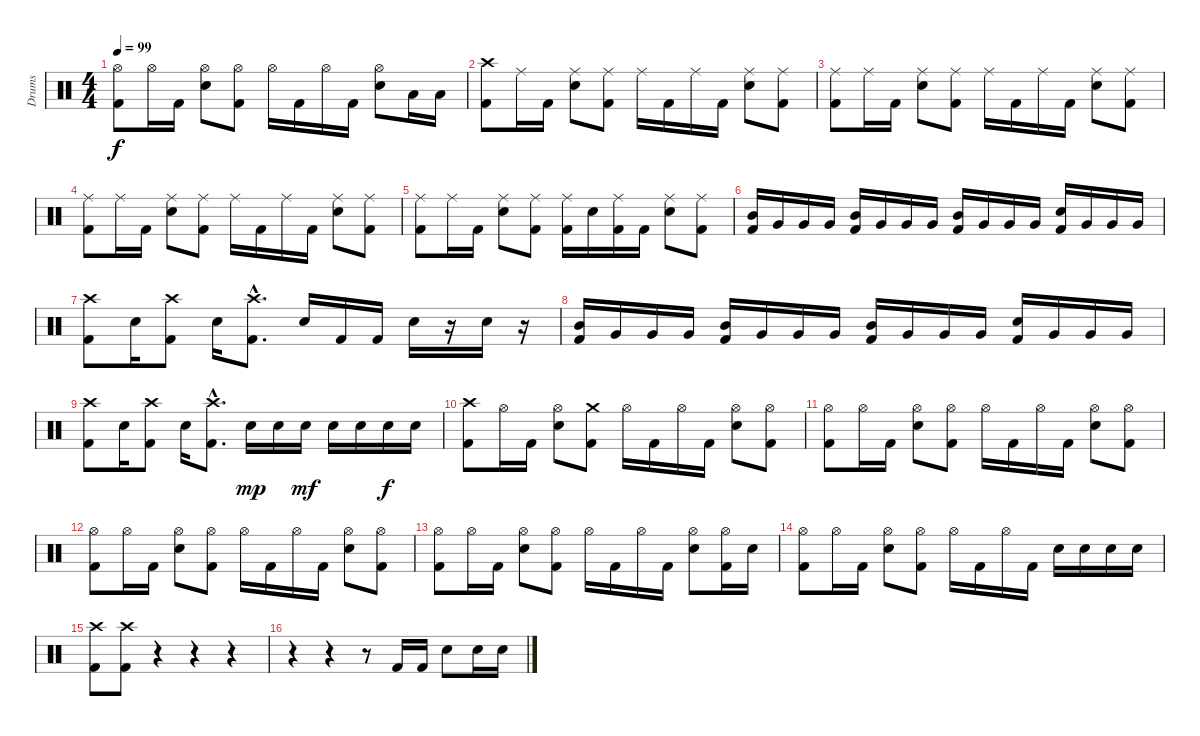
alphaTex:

\track ("Drums" "Drums") {instrument percussion}
\staff {score}
\articulation defaults
\ts (4 4)
\tempo 99
\clef neutral
\ks c
("Hi-Hat (open)" "Kick (hit) 2").8{dy f} "Hi-Hat (open)".16 "Kick (hit) 2".16 ("Hi-Hat (open)" "Snare (hit) 2").8 ("Hi-Hat (open)" "Kick (hit) 2").8 "Hi-Hat (open)".16 "Kick (hit) 2".16 "Hi-Hat (open)".16 "Kick (hit) 2".16 ("Hi-Hat (open)" "Snare (hit) 2").8 "Low Tom (hit)".16 "Low Tom (hit)".16 |
("Crash high (hit)" "Kick (hit) 2").8 "Ride (middle)".16 "Kick (hit) 2".16 ("Ride (middle)" "Snare (hit) 2").8 ("Ride (middle)" "Kick (hit) 2").8 "Ride (middle)".16 "Kick (hit) 2".16 "Ride (middle)".16 "Kick (hit) 2".16 ("Ride (middle)" "Snare (hit) 2").8 ("Ride (middle)" "Kick (hit) 2").8 |
("Ride (middle)" "Kick (hit) 2").8 "Ride (middle)".16 "Kick (hit) 2".16 ("Ride (middle)" "Snare (hit) 2").8 ("Ride (middle)" "Kick (hit) 2").8 "Ride (middle)".16 "Kick (hit) 2".16 "Ride (middle)".16 "Kick (hit) 2".16 ("Ride (middle)" "Snare (hit) 2").8 ("Ride (middle)" "Kick (hit) 2").8 |
("Ride (middle)" "Kick (hit) 2").8 "Ride (middle)".16 "Kick (hit) 2".16 ("Ride (middle)" "Snare (hit) 2").8 ("Ride (middle)" "Kick (hit) 2").8 "Ride (middle)".16 "Kick (hit) 2".16 "Ride (middle)".16 "Kick (hit) 2".16 ("Ride (middle)" "Snare (hit) 2").8 ("Ride (middle)" "Kick (hit) 2").8 |
("Ride (middle)" "Kick (hit) 2").8 "Ride (middle)".16 "Kick (hit) 2".16 ("Ride (middle)" "Snare (hit) 2").8 ("Ride (middle)" "Kick (hit) 2").8 ("Ride (middle)" "Kick (hit) 2").16 "Snare (hit) 2".16 ("Ride (middle)" "Kick (hit) 2").16 "Kick (hit) 2".16 ("Ride (middle)" "Snare (hit) 2").8 ("Ride (middle)" "Kick (hit) 2").8 |
("Mid Tom (hit)" "Kick (hit) 2").16 "Very Low Tom (hit)".16 "Very Low Tom (hit)".16 "Very Low Tom (hit)".16 ("Mid Tom (hit)" "Kick (hit) 2").16 "Very Low Tom (hit)".16 "Very Low Tom (hit)".16 "Very Low Tom (hit)".16 ("Mid Tom (hit)" "Kick (hit) 2").16 "Very Low Tom (hit)".16 "Very Low Tom (hit)".16 "Very Low Tom (hit)".16 ("Snare (hit) 2" "Kick (hit) 2").16 "Very Low Tom (hit)".16 "Very Low Tom (hit)".16 "Very Low Tom (hit)".16 |
("Crash high (hit)" "Kick (hit) 2").8 "Snare (hit) 2".16 ("Crash high (hit)" "Kick (hit) 2").8 "Snare (hit) 2".16 ("Crash high (hit)"{hac} "Kick (hit) 2"{hac}).8{d} "Snare (hit) 2".16 "Kick (hit) 2".16 "Kick (hit) 2".16 "Snare (hit) 2".16 r.16 "Snare (hit) 2".16 r.16 |
("Mid Tom (hit)" "Kick (hit) 2").16 "Very Low Tom (hit)".16 "Very Low Tom (hit)".16 "Very Low Tom (hit)".16 ("Mid Tom (hit)" "Kick (hit) 2").16 "Very Low Tom (hit)".16 "Very Low Tom (hit)".16 "Very Low Tom (hit)".16 ("Mid Tom (hit)" "Kick (hit) 2").16 "Very Low Tom (hit)".16 "Very Low Tom (hit)".16 "Very Low Tom (hit)".16 ("Snare (hit) 2" "Kick (hit) 2").16 "Very Low Tom (hit)".16 "Very Low Tom (hit)".16 "Very Low Tom (hit)".16 |
("Crash high (hit)" "Kick (hit) 2").8 "Snare (hit) 2".16 ("Crash high (hit)" "Kick (hit) 2").8 "Snare (hit) 2".16 ("Crash high (hit)"{hac} "Kick (hit) 2"{hac}).8{d} "Snare (hit) 2".16{dy mp} "Snare (hit) 2".16 "Snare (hit) 2".16{dy mf} "Snare (hit) 2".16 "Snare (hit) 2".16 "Snare (hit) 2".16{dy f} "Snare (hit) 2".16 |
("Crash high (hit)" "Kick (hit) 2").8 "Hi-Hat (open)".16 "Kick (hit) 2".16 ("Hi-Hat (open)" "Snare (hit) 2").8 ("Crash medium (hit)" "Kick (hit) 2").8 "Hi-Hat (open)".16 "Kick (hit) 2".16 "Hi-Hat (open)".16 "Kick (hit) 2".16 ("Hi-Hat (open)" "Snare (hit) 2").8 ("Hi-Hat (open)" "Kick (hit) 2").8 |
("Hi-Hat (open)" "Kick (hit) 2").8 "Hi-Hat (open)".16 "Kick (hit) 2".16 ("Hi-Hat (open)" "Snare (hit) 2").8 ("Hi-Hat (open)" "Kick (hit) 2").8 "Hi-Hat (open)".16 "Kick (hit) 2".16 "Hi-Hat (open)".16 "Kick (hit) 2".16 ("Hi-Hat (open)" "Snare (hit) 2").8 ("Hi-Hat (open)" "Kick (hit) 2").8 |
("Hi-Hat (open)" "Kick (hit) 2").8 "Hi-Hat (open)".16 "Kick (hit) 2".16 ("Hi-Hat (open)" "Snare (hit) 2").8 ("Hi-Hat (open)" "Kick (hit) 2").8 "Hi-Hat (open)".16 "Kick (hit) 2".16 "Hi-Hat (open)".16 "Kick (hit) 2".16 ("Hi-Hat (open)" "Snare (hit) 2").8 ("Hi-Hat (open)" "Kick (hit) 2").8 |
("Hi-Hat (open)" "Kick (hit) 2").8 "Hi-Hat (open)".16 "Kick (hit) 2".16 ("Hi-Hat (open)" "Snare (hit) 2").8 ("Hi-Hat (open)" "Kick (hit) 2").8 "Hi-Hat (open)".16 "Kick (hit) 2".16 "Hi-Hat (open)".16 "Kick (hit) 2".16 ("Hi-Hat (open)" "Snare (hit) 2").8 ("Hi-Hat (open)" "Kick (hit) 2").16 "Snare (hit) 2".16 |
("Hi-Hat (open)" "Kick (hit) 2").8 "Hi-Hat (open)".16 "Kick (hit) 2".16 ("Hi-Hat (open)" "Snare (hit) 2").8 ("Hi-Hat (open)" "Kick (hit) 2").8 "Hi-Hat (open)".16 "Kick (hit) 2".16 "Hi-Hat (open)".16 "Kick (hit) 2".16 "Snare (hit) 2".16 "Snare (hit) 2".16 "Snare (hit) 2".16 "Snare (hit) 2".16 |
("Crash high (hit)" "Kick (hit) 2").8 ("Crash high (hit)" "Kick (hit) 2").8 r.4 r.4 r.4 |
r.4 r.4 r.8 "Kick (hit) 2".16 "Kick (hit) 2".16 "Snare (hit) 2".8 "Snare (hit) 2".16 "Snare (hit) 2".16
